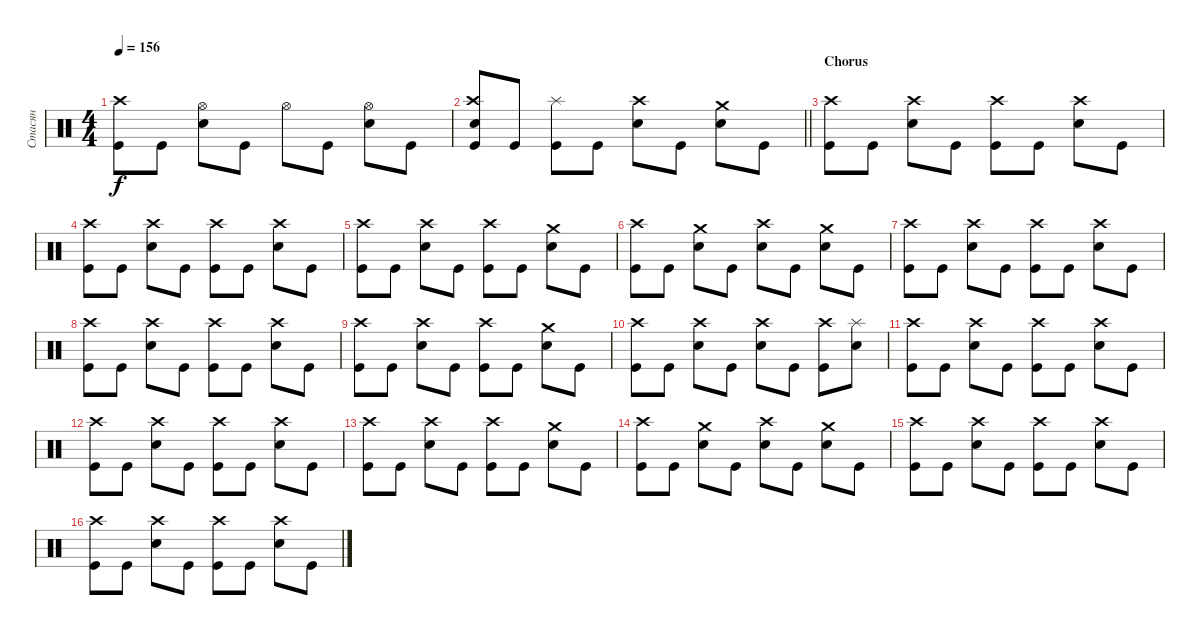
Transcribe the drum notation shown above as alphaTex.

\track ("Стасян" "Стасян") {instrument percussion}
\staff
\articulation defaults
\ts (4 4)
\tempo 156
\clef neutral
\ks c
("Kick (hit)" "Crash high (hit)").8{dy f} "Kick (hit)".8 ("Hi-Hat (open)" "Snare (hit) 2").8 "Kick (hit)".8 "Hi-Hat (open)".8 "Kick (hit)".8 ("Hi-Hat (open)" "Snare (hit) 2").8 "Kick (hit)".8 |
\barLineRight lightlight
("Crash high (hit)" "Kick (hit)" "Snare (hit) 2").8 "Kick (hit)".8 ("Splash (hit)" "Kick (hit)").8 "Kick (hit)".8 ("Snare (hit) 2" "Crash high (hit)").8 "Kick (hit)".8 ("Snare (hit) 2" "Crash medium (hit)").8 "Kick (hit)".8 |
\section ("" "Chorus")
("Crash high (hit)" "Kick (hit)").8 "Kick (hit)".8 ("Crash high (hit)" "Snare (hit) 2").8 "Kick (hit)".8 ("Crash high (hit)" "Kick (hit)").8 "Kick (hit)".8 ("Crash high (hit)" "Snare (hit) 2").8 "Kick (hit)".8 |
("Crash high (hit)" "Kick (hit)").8 "Kick (hit)".8 ("Crash high (hit)" "Snare (hit) 2").8 "Kick (hit)".8 ("Crash high (hit)" "Kick (hit)").8 "Kick (hit)".8 ("Crash high (hit)" "Snare (hit) 2").8 "Kick (hit)".8 |
("Crash high (hit)" "Kick (hit)").8 "Kick (hit)".8 ("Crash high (hit)" "Snare (hit) 2").8 "Kick (hit)".8 ("Crash high (hit)" "Kick (hit)").8 "Kick (hit)".8 ("Snare (hit) 2" "Crash medium (hit)").8 "Kick (hit)".8 |
("Crash high (hit)" "Kick (hit)").8 "Kick (hit)".8 ("Snare (hit) 2" "Crash medium (hit)").8 "Kick (hit)".8 ("Crash high (hit)" "Snare (hit) 2").8 "Kick (hit)".8 ("Snare (hit) 2" "Crash medium (hit)").8 "Kick (hit)".8 |
("Crash high (hit)" "Kick (hit)").8 "Kick (hit)".8 ("Crash high (hit)" "Snare (hit) 2").8 "Kick (hit)".8 ("Crash high (hit)" "Kick (hit)").8 "Kick (hit)".8 ("Crash high (hit)" "Snare (hit) 2").8 "Kick (hit)".8 |
("Crash high (hit)" "Kick (hit)").8 "Kick (hit)".8 ("Crash high (hit)" "Snare (hit) 2").8 "Kick (hit)".8 ("Crash high (hit)" "Kick (hit)").8 "Kick (hit)".8 ("Crash high (hit)" "Snare (hit) 2").8 "Kick (hit)".8 |
("Crash high (hit)" "Kick (hit)").8 "Kick (hit)".8 ("Crash high (hit)" "Snare (hit) 2").8 "Kick (hit)".8 ("Crash high (hit)" "Kick (hit)").8 "Kick (hit)".8 ("Snare (hit) 2" "Crash medium (hit)").8 "Kick (hit)".8 |
("Crash high (hit)" "Kick (hit)").8 "Kick (hit)".8 ("Crash high (hit)" "Snare (hit) 2").8 "Kick (hit)".8 ("Crash high (hit)" "Snare (hit) 2").8 "Kick (hit)".8 ("Crash high (hit)" "Kick (hit)").8 ("Snare (hit) 2" "Splash (hit)").8 |
("Crash high (hit)" "Kick (hit)").8 "Kick (hit)".8 ("Crash high (hit)" "Snare (hit) 2").8 "Kick (hit)".8 ("Crash high (hit)" "Kick (hit)").8 "Kick (hit)".8 ("Crash high (hit)" "Snare (hit) 2").8 "Kick (hit)".8 |
("Crash high (hit)" "Kick (hit)").8 "Kick (hit)".8 ("Crash high (hit)" "Snare (hit) 2").8 "Kick (hit)".8 ("Crash high (hit)" "Kick (hit)").8 "Kick (hit)".8 ("Crash high (hit)" "Snare (hit) 2").8 "Kick (hit)".8 |
("Crash high (hit)" "Kick (hit)").8 "Kick (hit)".8 ("Crash high (hit)" "Snare (hit) 2").8 "Kick (hit)".8 ("Crash high (hit)" "Kick (hit)").8 "Kick (hit)".8 ("Snare (hit) 2" "Crash medium (hit)").8 "Kick (hit)".8 |
("Crash high (hit)" "Kick (hit)").8 "Kick (hit)".8 ("Snare (hit) 2" "Crash medium (hit)").8 "Kick (hit)".8 ("Crash high (hit)" "Snare (hit) 2").8 "Kick (hit)".8 ("Snare (hit) 2" "Crash medium (hit)").8 "Kick (hit)".8 |
("Crash high (hit)" "Kick (hit)").8 "Kick (hit)".8 ("Crash high (hit)" "Snare (hit) 2").8 "Kick (hit)".8 ("Crash high (hit)" "Kick (hit)").8 "Kick (hit)".8 ("Crash high (hit)" "Snare (hit) 2").8 "Kick (hit)".8 |
("Crash high (hit)" "Kick (hit)").8 "Kick (hit)".8 ("Crash high (hit)" "Snare (hit) 2").8 "Kick (hit)".8 ("Crash high (hit)" "Kick (hit)").8 "Kick (hit)".8 ("Crash high (hit)" "Snare (hit) 2").8 "Kick (hit)".8
